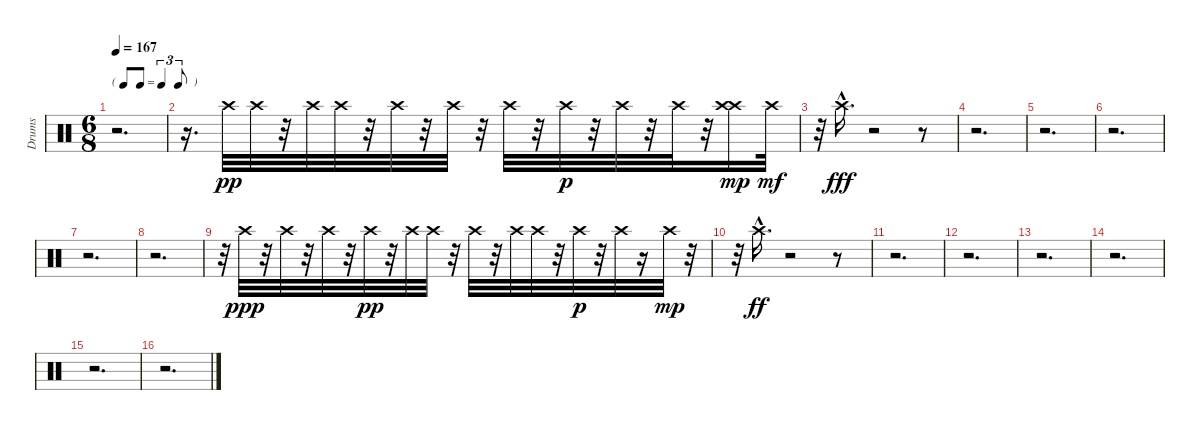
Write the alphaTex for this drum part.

\track ("Drums" "Drums") {instrument percussion}
\staff {score}
\articulation defaults
\ts (6 8)
\tf triplet8th
\tempo 167
\clef neutral
\ks c
r.2{d dy f} |
r.16{d} "Crash high (hit)".32{dy pp} "Crash high (hit)".32 r.32 "Crash high (hit)".32 "Crash high (hit)".32 r.32 "Crash high (hit)".32 r.32 "Crash high (hit)".32 r.32 "Crash high (hit)".32 r.32 "Crash high (hit)".32{dy p} r.32 "Crash high (hit)".32 r.32 "Crash high (hit)".32 r.32 ("Crash high (hit)" "Crash high (hit)").16{dy mp} "Crash high (hit)".32{dy mf} |
r.32 "Crash high (hit)"{hac}.16{d dy fff} r.2 r.8 |
r.2{d} |
r.2{d} |
r.2{d} |
r.2{d} |
r.2{d} |
r.32 "Crash high (hit)".32{dy ppp} r.32 "Crash high (hit)".32 r.32 "Crash high (hit)".32 r.32 "Crash high (hit)".32{dy pp} r.32 "Crash high (hit)".32 "Crash high (hit)".32 r.32 "Crash high (hit)".32 r.32 "Crash high (hit)".32 "Crash high (hit)".32 r.32 "Crash high (hit)".32{dy p} r.32 "Crash high (hit)".32 r.16 "Crash high (hit)".32{dy mp} r.32 |
r.32 "Crash high (hit)"{hac}.16{d dy ff} r.2 r.8 |
r.2{d} |
r.2{d} |
r.2{d} |
r.2{d} |
r.2{d} |
r.2{d}
